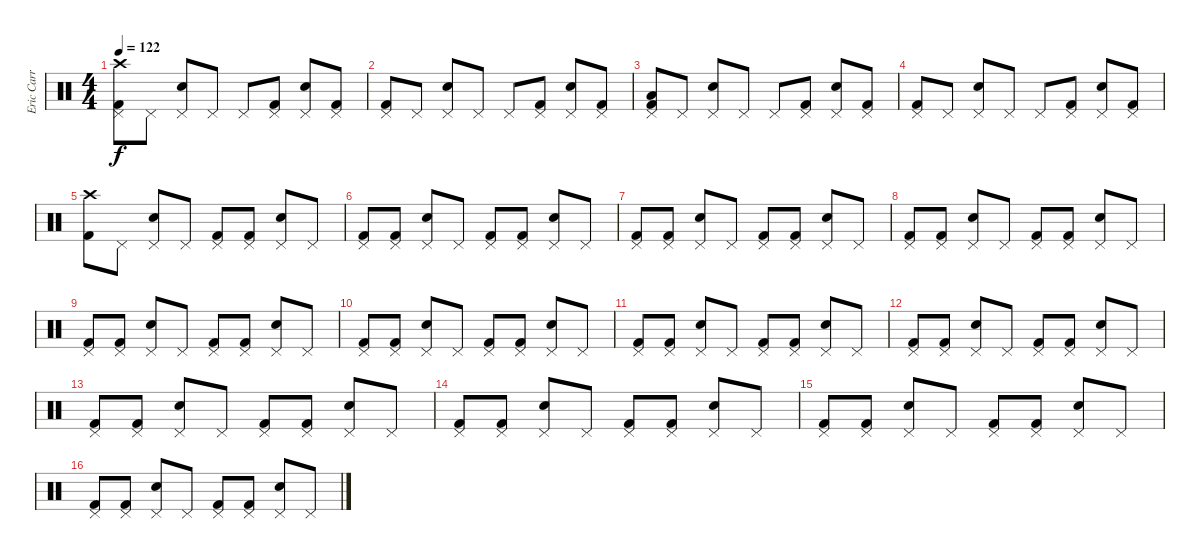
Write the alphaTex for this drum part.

\track ("Eric Carr" "Eric Carr") {instrument percussion}
\staff {score}
\articulation defaults
\ts (4 4)
\tempo 122
\clef neutral
\ks c
("Kick (hit) 2" "Pedal Hi-Hat (hit)" "Crash high (hit)").8{dy f} "Pedal Hi-Hat (hit)".8 ("Pedal Hi-Hat (hit)" "Snare (hit) 2").8 "Pedal Hi-Hat (hit)".8 "Pedal Hi-Hat (hit)".8 ("Kick (hit) 2" "Pedal Hi-Hat (hit)").8 ("Pedal Hi-Hat (hit)" "Snare (hit) 2").8 ("Kick (hit) 2" "Pedal Hi-Hat (hit)").8 |
("Kick (hit) 2" "Pedal Hi-Hat (hit)").8 "Pedal Hi-Hat (hit)".8 ("Pedal Hi-Hat (hit)" "Snare (hit) 2").8 "Pedal Hi-Hat (hit)".8 "Pedal Hi-Hat (hit)".8 ("Kick (hit) 2" "Pedal Hi-Hat (hit)").8 ("Pedal Hi-Hat (hit)" "Snare (hit) 2").8 ("Kick (hit) 2" "Pedal Hi-Hat (hit)").8 |
("Kick (hit) 2" "Pedal Hi-Hat (hit)" "Low Tom (hit)").8 "Pedal Hi-Hat (hit)".8 ("Pedal Hi-Hat (hit)" "Snare (hit) 2").8 "Pedal Hi-Hat (hit)".8 "Pedal Hi-Hat (hit)".8 ("Kick (hit) 2" "Pedal Hi-Hat (hit)").8 ("Pedal Hi-Hat (hit)" "Snare (hit) 2").8 ("Kick (hit) 2" "Pedal Hi-Hat (hit)").8 |
("Kick (hit) 2" "Pedal Hi-Hat (hit)").8 "Pedal Hi-Hat (hit)".8 ("Pedal Hi-Hat (hit)" "Snare (hit) 2").8 "Pedal Hi-Hat (hit)".8 "Pedal Hi-Hat (hit)".8 ("Kick (hit) 2" "Pedal Hi-Hat (hit)").8 ("Pedal Hi-Hat (hit)" "Snare (hit) 2").8 ("Kick (hit) 2" "Pedal Hi-Hat (hit)").8 |
("Kick (hit) 2" "Crash high (hit)").8 "Pedal Hi-Hat (hit)".8 ("Pedal Hi-Hat (hit)" "Snare (hit) 2").8 "Pedal Hi-Hat (hit)".8 ("Kick (hit) 2" "Pedal Hi-Hat (hit)").8 ("Kick (hit) 2" "Pedal Hi-Hat (hit)").8 ("Pedal Hi-Hat (hit)" "Snare (hit) 2").8 "Pedal Hi-Hat (hit)".8 |
("Kick (hit) 2" "Pedal Hi-Hat (hit)").8 ("Kick (hit) 2" "Pedal Hi-Hat (hit)").8 ("Pedal Hi-Hat (hit)" "Snare (hit) 2").8 "Pedal Hi-Hat (hit)".8 ("Kick (hit) 2" "Pedal Hi-Hat (hit)").8 ("Kick (hit) 2" "Pedal Hi-Hat (hit)").8 ("Pedal Hi-Hat (hit)" "Snare (hit) 2").8 "Pedal Hi-Hat (hit)".8 |
("Kick (hit) 2" "Pedal Hi-Hat (hit)").8 ("Kick (hit) 2" "Pedal Hi-Hat (hit)").8 ("Pedal Hi-Hat (hit)" "Snare (hit) 2").8 "Pedal Hi-Hat (hit)".8 ("Kick (hit) 2" "Pedal Hi-Hat (hit)").8 ("Kick (hit) 2" "Pedal Hi-Hat (hit)").8 ("Pedal Hi-Hat (hit)" "Snare (hit) 2").8 "Pedal Hi-Hat (hit)".8 |
("Kick (hit) 2" "Pedal Hi-Hat (hit)").8 ("Kick (hit) 2" "Pedal Hi-Hat (hit)").8 ("Pedal Hi-Hat (hit)" "Snare (hit) 2").8 "Pedal Hi-Hat (hit)".8 ("Kick (hit) 2" "Pedal Hi-Hat (hit)").8 ("Kick (hit) 2" "Pedal Hi-Hat (hit)").8 ("Pedal Hi-Hat (hit)" "Snare (hit) 2").8 "Pedal Hi-Hat (hit)".8 |
("Kick (hit) 2" "Pedal Hi-Hat (hit)").8 ("Kick (hit) 2" "Pedal Hi-Hat (hit)").8 ("Pedal Hi-Hat (hit)" "Snare (hit) 2").8 "Pedal Hi-Hat (hit)".8 ("Kick (hit) 2" "Pedal Hi-Hat (hit)").8 ("Kick (hit) 2" "Pedal Hi-Hat (hit)").8 ("Pedal Hi-Hat (hit)" "Snare (hit) 2").8 "Pedal Hi-Hat (hit)".8 |
("Kick (hit) 2" "Pedal Hi-Hat (hit)").8 ("Kick (hit) 2" "Pedal Hi-Hat (hit)").8 ("Pedal Hi-Hat (hit)" "Snare (hit) 2").8 "Pedal Hi-Hat (hit)".8 ("Kick (hit) 2" "Pedal Hi-Hat (hit)").8 ("Kick (hit) 2" "Pedal Hi-Hat (hit)").8 ("Pedal Hi-Hat (hit)" "Snare (hit) 2").8 "Pedal Hi-Hat (hit)".8 |
("Kick (hit) 2" "Pedal Hi-Hat (hit)").8 ("Kick (hit) 2" "Pedal Hi-Hat (hit)").8 ("Pedal Hi-Hat (hit)" "Snare (hit) 2").8 "Pedal Hi-Hat (hit)".8 ("Kick (hit) 2" "Pedal Hi-Hat (hit)").8 ("Kick (hit) 2" "Pedal Hi-Hat (hit)").8 ("Pedal Hi-Hat (hit)" "Snare (hit) 2").8 "Pedal Hi-Hat (hit)".8 |
("Kick (hit) 2" "Pedal Hi-Hat (hit)").8 ("Kick (hit) 2" "Pedal Hi-Hat (hit)").8 ("Pedal Hi-Hat (hit)" "Snare (hit) 2").8 "Pedal Hi-Hat (hit)".8 ("Kick (hit) 2" "Pedal Hi-Hat (hit)").8 ("Kick (hit) 2" "Pedal Hi-Hat (hit)").8 ("Pedal Hi-Hat (hit)" "Snare (hit) 2").8 "Pedal Hi-Hat (hit)".8 |
("Kick (hit) 2" "Pedal Hi-Hat (hit)").8 ("Kick (hit) 2" "Pedal Hi-Hat (hit)").8 ("Pedal Hi-Hat (hit)" "Snare (hit) 2").8 "Pedal Hi-Hat (hit)".8 ("Kick (hit) 2" "Pedal Hi-Hat (hit)").8 ("Kick (hit) 2" "Pedal Hi-Hat (hit)").8 ("Pedal Hi-Hat (hit)" "Snare (hit) 2").8 "Pedal Hi-Hat (hit)".8 |
("Kick (hit) 2" "Pedal Hi-Hat (hit)").8 ("Kick (hit) 2" "Pedal Hi-Hat (hit)").8 ("Pedal Hi-Hat (hit)" "Snare (hit) 2").8 "Pedal Hi-Hat (hit)".8 ("Kick (hit) 2" "Pedal Hi-Hat (hit)").8 ("Kick (hit) 2" "Pedal Hi-Hat (hit)").8 ("Pedal Hi-Hat (hit)" "Snare (hit) 2").8 "Pedal Hi-Hat (hit)".8 |
("Kick (hit) 2" "Pedal Hi-Hat (hit)").8 ("Kick (hit) 2" "Pedal Hi-Hat (hit)").8 ("Pedal Hi-Hat (hit)" "Snare (hit) 2").8 "Pedal Hi-Hat (hit)".8 ("Kick (hit) 2" "Pedal Hi-Hat (hit)").8 ("Kick (hit) 2" "Pedal Hi-Hat (hit)").8 ("Pedal Hi-Hat (hit)" "Snare (hit) 2").8 "Pedal Hi-Hat (hit)".8 |
("Kick (hit) 2" "Pedal Hi-Hat (hit)").8 ("Kick (hit) 2" "Pedal Hi-Hat (hit)").8 ("Pedal Hi-Hat (hit)" "Snare (hit) 2").8 "Pedal Hi-Hat (hit)".8 ("Kick (hit) 2" "Pedal Hi-Hat (hit)").8 ("Kick (hit) 2" "Pedal Hi-Hat (hit)").8 ("Pedal Hi-Hat (hit)" "Snare (hit) 2").8 "Pedal Hi-Hat (hit)".8
